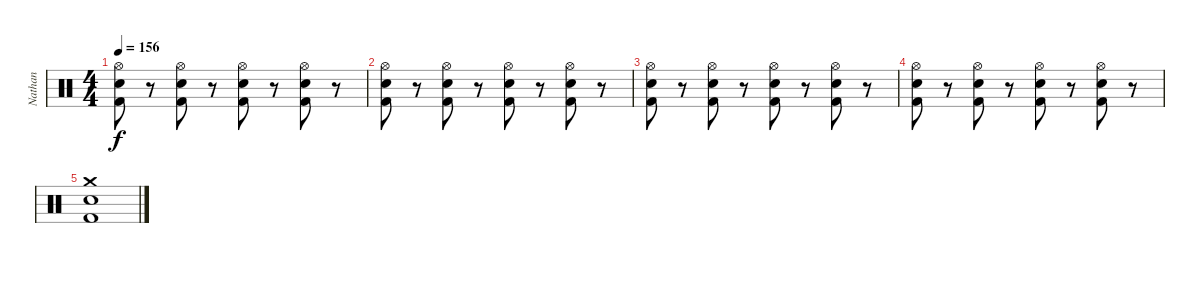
\track ("Nathan" "Nathan") {instrument percussion}
\staff {score}
\articulation defaults
\ts (4 4)
\tempo 156
\clef neutral
\ks c
("Hi-Hat (open)" "Electric Snare (hit)" "Kick (hit) 2").8{dy f} r.8 ("Hi-Hat (open)" "Electric Snare (hit)" "Kick (hit) 2").8 r.8 ("Hi-Hat (open)" "Electric Snare (hit)" "Kick (hit) 2").8 r.8 ("Hi-Hat (open)" "Electric Snare (hit)" "Kick (hit) 2").8 r.8 |
("Hi-Hat (open)" "Electric Snare (hit)" "Kick (hit) 2").8 r.8 ("Hi-Hat (open)" "Electric Snare (hit)" "Kick (hit) 2").8 r.8 ("Hi-Hat (open)" "Electric Snare (hit)" "Kick (hit) 2").8 r.8 ("Hi-Hat (open)" "Electric Snare (hit)" "Kick (hit) 2").8 r.8 |
("Hi-Hat (open)" "Electric Snare (hit)" "Kick (hit) 2").8 r.8 ("Hi-Hat (open)" "Electric Snare (hit)" "Kick (hit) 2").8 r.8 ("Hi-Hat (open)" "Electric Snare (hit)" "Kick (hit) 2").8 r.8 ("Hi-Hat (open)" "Electric Snare (hit)" "Kick (hit) 2").8 r.8 |
("Hi-Hat (open)" "Electric Snare (hit)" "Kick (hit) 2").8 r.8 ("Hi-Hat (open)" "Electric Snare (hit)" "Kick (hit) 2").8 r.8 ("Hi-Hat (open)" "Electric Snare (hit)" "Kick (hit) 2").8 r.8 ("Hi-Hat (open)" "Electric Snare (hit)" "Kick (hit) 2").8 r.8 |
("Crash medium (hit)" "Electric Snare (hit)" "Kick (hit) 2").1
